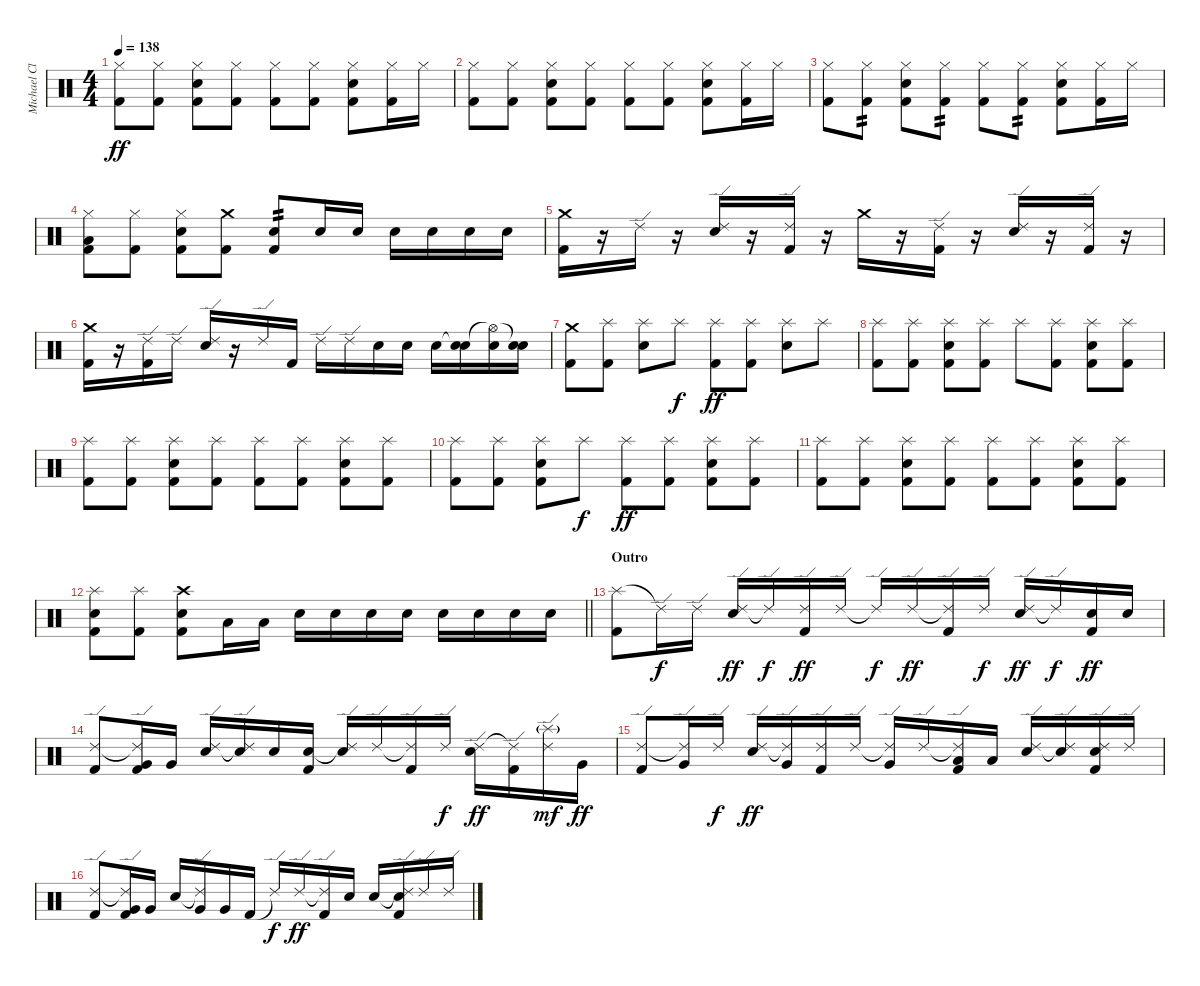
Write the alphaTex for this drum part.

\track ("Michael Clarke" "Michael Cl") {instrument percussion}
\staff {score}
\articulation defaults
\ts (4 4)
\tempo 138
\clef neutral
\ks c
("Hi-Hat (closed)" "Kick (hit) 2").8{dy ff} ("Hi-Hat (closed)" "Kick (hit) 2").8 ("Hi-Hat (closed)" "Snare (hit) 2" "Kick (hit) 2").8 ("Hi-Hat (closed)" "Kick (hit) 2").8 ("Hi-Hat (closed)" "Kick (hit) 2").8 ("Hi-Hat (closed)" "Kick (hit) 2").8 ("Hi-Hat (closed)" "Snare (hit) 2" "Kick (hit) 2").8 ("Hi-Hat (closed)" "Kick (hit) 2").16 "Hi-Hat (closed)".16 |
("Hi-Hat (closed)" "Kick (hit) 2").8 ("Hi-Hat (closed)" "Kick (hit) 2").8 ("Hi-Hat (closed)" "Snare (hit) 2" "Kick (hit) 2").8 ("Hi-Hat (closed)" "Kick (hit) 2").8 ("Hi-Hat (closed)" "Kick (hit) 2").8 ("Hi-Hat (closed)" "Kick (hit) 2").8 ("Hi-Hat (closed)" "Snare (hit) 2" "Kick (hit) 2").8 ("Hi-Hat (closed)" "Kick (hit) 2").16 "Hi-Hat (closed)".16 |
("Hi-Hat (closed)" "Kick (hit) 2").8 ("Hi-Hat (closed)" "Kick (hit) 2").8{tp 2} ("Hi-Hat (closed)" "Snare (hit) 2" "Kick (hit) 2").8 ("Hi-Hat (closed)" "Kick (hit) 2").8{tp 2} ("Hi-Hat (closed)" "Kick (hit) 2").8 ("Hi-Hat (closed)" "Kick (hit) 2").8{tp 2} ("Hi-Hat (closed)" "Snare (hit) 2" "Kick (hit) 2").8 ("Hi-Hat (closed)" "Kick (hit) 2").16 "Hi-Hat (closed)".16 |
("Hi-Hat (closed)" "Low Tom (hit)" "Kick (hit) 2").8 ("Hi-Hat (closed)" "Kick (hit) 2").8 ("Hi-Hat (closed)" "Snare (hit) 2" "Kick (hit) 2").8 ("Crash medium (hit)" "Kick (hit) 2").8 ("Snare (hit) 2" "Kick (hit) 2").8{tp 2} "Snare (hit) 2".16 "Snare (hit) 2".16 "Snare (hit) 2".16 "Snare (hit) 2".16 "Snare (hit) 2".16 "Snare (hit) 2".16 |
("Crash medium (hit)" "Kick (hit) 2").16 r.16 "Ride (edge) 2".16 r.16 ("Ride (edge) 2" "Snare (hit) 2").16 r.16 ("Ride (edge) 2" "Kick (hit) 2").16 r.16 "Crash medium (hit)".16 r.16 ("Ride (edge) 2" "Kick (hit) 2").16 r.16 ("Ride (edge) 2" "Snare (hit) 2").16 r.16 ("Ride (edge) 2" "Kick (hit) 2").16 r.16 |
("Crash medium (hit)" "Kick (hit) 2").16 r.16 ("Ride (edge) 2" "Kick (hit) 2").16 "Ride (edge) 2".16 ("Ride (edge) 2" "Snare (hit) 2").16 r.16 "Ride (edge) 2".16 "Kick (hit) 2".16 "Ride (edge) 2".16 "Ride (edge) 2".16 "Snare (hit) 2".16 "Snare (hit) 2".16 "Snare (hit) 2".16 ("Snare (hit)"{t} "Snare (hit) 2").16 ("Hi-Hat (open)"{t} "Snare (hit) 2").16 ("Snare (hit)"{t} "Snare (hit) 2").16 |
("Crash medium (hit)" "Kick (hit) 2").8 ("Splash (hit)" "Kick (hit) 2").8 ("Splash (hit)" "Snare (hit) 2").8 "Splash (hit)".8{dy f} ("Splash (hit)" "Kick (hit) 2").8{dy ff} ("Splash (hit)" "Kick (hit) 2").8 ("Splash (hit)" "Snare (hit) 2").8 "Splash (hit)".8 |
("Splash (hit)" "Kick (hit) 2").8 ("Splash (hit)" "Kick (hit) 2").8 ("Splash (hit)" "Snare (hit) 2" "Kick (hit) 2").8 ("Splash (hit)" "Kick (hit) 2").8 "Splash (hit)".8 ("Splash (hit)" "Kick (hit) 2").8 ("Splash (hit)" "Snare (hit) 2" "Kick (hit) 2").8 ("Splash (hit)" "Kick (hit) 2").8 |
("Splash (hit)" "Kick (hit) 2").8 ("Splash (hit)" "Kick (hit) 2").8 ("Splash (hit)" "Snare (hit) 2" "Kick (hit) 2").8 ("Splash (hit)" "Kick (hit) 2").8 ("Splash (hit)" "Kick (hit) 2").8 ("Splash (hit)" "Kick (hit) 2").8 ("Splash (hit)" "Snare (hit) 2" "Kick (hit) 2").8 ("Splash (hit)" "Kick (hit) 2").8 |
("Splash (hit)" "Kick (hit) 2").8 ("Splash (hit)" "Kick (hit) 2").8 ("Splash (hit)" "Snare (hit) 2" "Kick (hit) 2").8 "Splash (hit)".8{dy f} ("Splash (hit)" "Kick (hit) 2").8{dy ff} ("Splash (hit)" "Kick (hit) 2").8 ("Splash (hit)" "Snare (hit) 2" "Kick (hit) 2").8 ("Splash (hit)" "Kick (hit) 2").8 |
("Splash (hit)" "Kick (hit) 2").8 ("Splash (hit)" "Kick (hit) 2").8 ("Splash (hit)" "Snare (hit) 2" "Kick (hit) 2").8 ("Splash (hit)" "Kick (hit) 2").8 ("Splash (hit)" "Kick (hit) 2").8 ("Splash (hit)" "Kick (hit) 2").8 ("Splash (hit)" "Snare (hit) 2" "Kick (hit) 2").8 ("Splash (hit)" "Kick (hit) 2").8 |
\barLineRight lightlight
("Splash (hit)" "Snare (hit) 2" "Kick (hit) 2").8 ("Splash (hit)" "Kick (hit) 2").8 ("Crash high (hit)" "Snare (hit) 2" "Kick (hit) 2").8 "Low Tom (hit)".16 "Low Tom (hit)".16 "Snare (hit) 2".16 "Snare (hit) 2".16 "Snare (hit) 2".16 "Snare (hit) 2".16 "Snare (hit) 2".16 "Snare (hit) 2".16 "Snare (hit) 2".16 "Snare (hit) 2".16 |
\section ("" "Outro")
("Splash (hit)" "Kick (hit) 2").8 "Ride (edge) 2"{t}.16{dy f} "Ride (edge) 2".16 ("Ride (edge) 2" "Snare (hit) 2").16{dy ff} "Ride (edge) 2"{t}.16{dy f} ("Ride (edge) 2" "Kick (hit) 2").16{dy ff} "Ride (edge) 2".16 "Ride (edge) 2"{t}.16{dy f} "Ride (edge) 2".16{dy ff} ("Ride (edge) 2"{t} "Kick (hit) 2").16 "Ride (edge) 2".16{dy f} ("Ride (edge) 2" "Snare (hit) 2").16{dy ff} "Ride (edge) 2"{t}.16{dy f} ("Snare (hit) 2" "Kick (hit) 2").16{dy ff} "Snare (hit) 2".16 |
("Ride (edge) 2" "Kick (hit) 2").8 ("Ride (edge) 2"{t} "Very Low Tom (hit)" "Kick (hit) 2").16 "Very Low Tom (hit)".16 ("Ride (edge) 2" "Snare (hit) 2").16 ("Ride (edge) 2"{t} "Snare (hit) 2").16 "Snare (hit) 2".16 ("Snare (hit) 2" "Kick (hit) 2").16 ("Ride (edge) 2"{t} "Snare (hit) 2").16 "Ride (edge) 2".16 ("Ride (edge) 2"{t} "Kick (hit) 2").16 "Ride (edge) 2".16{dy f} ("Ride (edge) 2" "Snare (hit) 2").16{dy ff} ("Ride (edge) 2"{t} "Kick (hit) 2").16 ("Ride (edge) 2" "Splash (hit)"{g}).16{dy mf} "Very Low Tom (hit)".16{dy ff} |
("Ride (edge) 2" "Kick (hit) 2").8 ("Ride (edge) 2"{t} "Very Low Tom (hit)").16 "Ride (edge) 2".16{dy f} ("Ride (edge) 2" "Snare (hit) 2").16{dy ff} ("Ride (edge) 2"{t} "Very Low Tom (hit)").16 ("Ride (edge) 2" "Kick (hit) 2").16 "Ride (edge) 2".16 ("Ride (edge) 2"{t} "Very Low Tom (hit)").16 "Ride (edge) 2".16 ("Ride (edge) 2"{t} "Low Tom (hit)" "Kick (hit) 2").16 "Low Tom (hit)".16 ("Ride (edge) 2" "Snare (hit) 2").16 ("Ride (edge) 2"{t} "Snare (hit) 2").16 ("Ride (edge) 2" "Snare (hit) 2" "Kick (hit) 2").16 "Ride (edge) 2".16 |
("Ride (edge) 2" "Kick (hit) 2").8 ("Ride (edge) 2"{t} "Very Low Tom (hit)" "Kick (hit) 2").16 "Very Low Tom (hit)".16 "Snare (hit) 2".16 ("Ride (edge) 2"{t} "Very Low Tom (hit)").16 "Very Low Tom (hit)".16 "Kick (hit) 2".16 "Ride (edge) 2"{t}.16{dy f} "Ride (edge) 2".16{dy ff} ("Ride (edge) 2"{t} "Kick (hit) 2").16 "Snare (hit) 2".16 "Snare (hit) 2".16 ("Ride (edge) 2"{t} "Snare (hit) 2" "Kick (hit) 2").16 "Ride (edge) 2".16 "Ride (edge) 2".16
